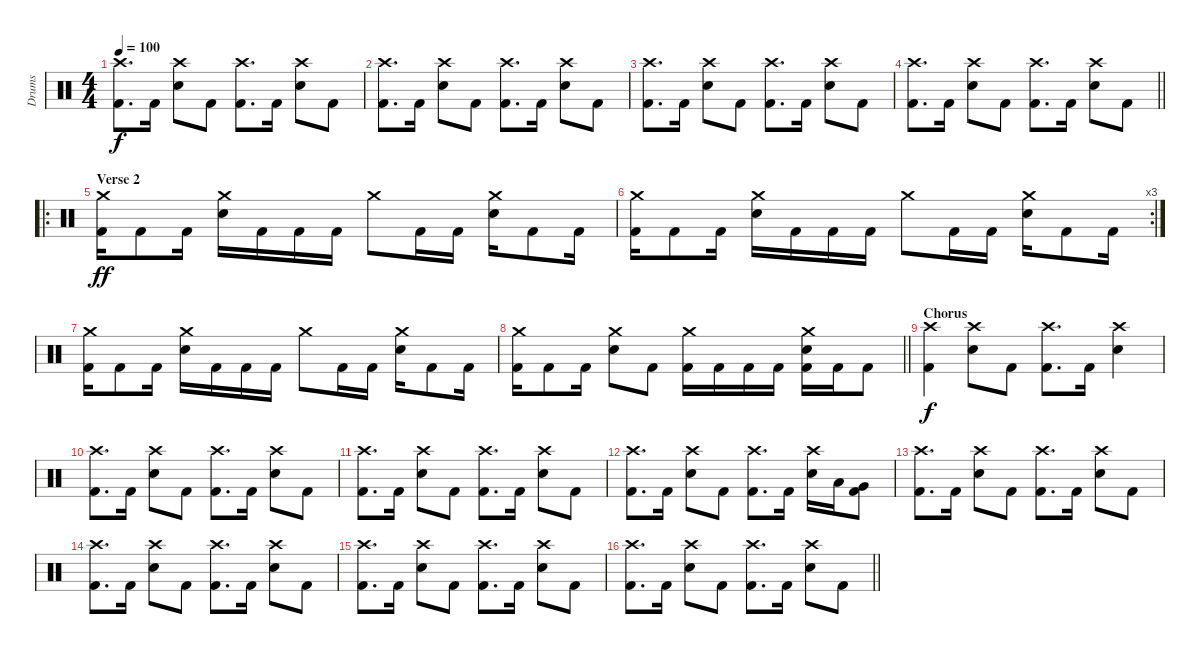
\track ("Drums" "Drums") {instrument percussion}
\staff {score}
\articulation defaults
\ts (4 4)
\tempo 100
\clef neutral
\ks c
("Crash high (hit)" "Kick (hit) 2").8{d dy f} "Kick (hit) 2".16 ("Crash high (hit)" "Snare (hit) 2").8 "Kick (hit) 2".8 ("Crash high (hit)" "Kick (hit) 2").8{d} "Kick (hit) 2".16 ("Crash high (hit)" "Snare (hit) 2").8 "Kick (hit) 2".8 |
("Crash high (hit)" "Kick (hit) 2").8{d} "Kick (hit) 2".16 ("Crash high (hit)" "Snare (hit) 2").8 "Kick (hit) 2".8 ("Crash high (hit)" "Kick (hit) 2").8{d} "Kick (hit) 2".16 ("Crash high (hit)" "Snare (hit) 2").8 "Kick (hit) 2".8 |
("Crash high (hit)" "Kick (hit) 2").8{d} "Kick (hit) 2".16 ("Crash high (hit)" "Snare (hit) 2").8 "Kick (hit) 2".8 ("Crash high (hit)" "Kick (hit) 2").8{d} "Kick (hit) 2".16 ("Crash high (hit)" "Snare (hit) 2").8 "Kick (hit) 2".8 |
\barLineRight lightlight
("Crash high (hit)" "Kick (hit) 2").8{d} "Kick (hit) 2".16 ("Crash high (hit)" "Snare (hit) 2").8 "Kick (hit) 2".8 ("Crash high (hit)" "Kick (hit) 2").8{d} "Kick (hit) 2".16 ("Crash high (hit)" "Snare (hit) 2").8 "Kick (hit) 2".8 |
\ro
\section ("" "Verse 2")
("Crash medium (hit)" "Kick (hit) 2").16{dy ff} "Kick (hit) 2".8 "Kick (hit) 2".16 ("Crash medium (hit)" "Snare (hit) 2").16 "Kick (hit) 2".16 "Kick (hit) 2".16 "Kick (hit) 2".16 "Crash medium (hit)".8 "Kick (hit) 2".16 "Kick (hit) 2".16 ("Crash medium (hit)" "Snare (hit) 2").16 "Kick (hit) 2".8 "Kick (hit) 2".16 |
\rc 3
("Crash medium (hit)" "Kick (hit) 2").16 "Kick (hit) 2".8 "Kick (hit) 2".16 ("Crash medium (hit)" "Snare (hit) 2").16 "Kick (hit) 2".16 "Kick (hit) 2".16 "Kick (hit) 2".16 "Crash medium (hit)".8 "Kick (hit) 2".16 "Kick (hit) 2".16 ("Crash medium (hit)" "Snare (hit) 2").16 "Kick (hit) 2".8 "Kick (hit) 2".16 |
("Crash medium (hit)" "Kick (hit) 2").16 "Kick (hit) 2".8 "Kick (hit) 2".16 ("Crash medium (hit)" "Snare (hit) 2").16 "Kick (hit) 2".16 "Kick (hit) 2".16 "Kick (hit) 2".16 "Crash medium (hit)".8 "Kick (hit) 2".16 "Kick (hit) 2".16 ("Crash medium (hit)" "Snare (hit) 2").16 "Kick (hit) 2".8 "Kick (hit) 2".16 |
\barLineRight lightlight
("Crash medium (hit)" "Kick (hit) 2").16 "Kick (hit) 2".8 "Kick (hit) 2".16 ("Crash medium (hit)" "Snare (hit) 2").8 "Kick (hit) 2".8 ("Crash medium (hit)" "Kick (hit) 2").16 "Kick (hit) 2".16 "Kick (hit) 2".16 "Kick (hit) 2".16 ("Crash medium (hit)" "Kick (hit) 2" "Snare (hit) 2").16 "Kick (hit) 2".16 "Kick (hit) 2".8 |
\section ("" "Chorus")
("Crash high (hit)" "Kick (hit) 2").4{dy f} ("Crash high (hit)" "Snare (hit) 2").8 "Kick (hit) 2".8 ("Crash high (hit)" "Kick (hit) 2").8{d} "Kick (hit) 2".16 ("Crash high (hit)" "Snare (hit) 2").4 |
("Crash high (hit)" "Kick (hit) 2").8{d} "Kick (hit) 2".16 ("Crash high (hit)" "Snare (hit) 2").8 "Kick (hit) 2".8 ("Crash high (hit)" "Kick (hit) 2").8{d} "Kick (hit) 2".16 ("Crash high (hit)" "Snare (hit) 2").8 "Kick (hit) 2".8 |
("Crash high (hit)" "Kick (hit) 2").8{d} "Kick (hit) 2".16 ("Crash high (hit)" "Snare (hit) 2").8 "Kick (hit) 2".8 ("Crash high (hit)" "Kick (hit) 2").8{d} "Kick (hit) 2".16 ("Crash high (hit)" "Snare (hit) 2").8 "Kick (hit) 2".8 |
("Crash high (hit)" "Kick (hit) 2").8{d} "Kick (hit) 2".16 ("Crash high (hit)" "Snare (hit) 2").8 "Kick (hit) 2".8 ("Crash high (hit)" "Kick (hit) 2").8{d} "Kick (hit) 2".16 ("Crash high (hit)" "Snare (hit) 2").16 "Low Tom (hit)".16 ("Very Low Tom (hit)" "Kick (hit) 2").8 |
("Crash high (hit)" "Kick (hit) 2").8{d} "Kick (hit) 2".16 ("Crash high (hit)" "Snare (hit) 2").8 "Kick (hit) 2".8 ("Crash high (hit)" "Kick (hit) 2").8{d} "Kick (hit) 2".16 ("Crash high (hit)" "Snare (hit) 2").8 "Kick (hit) 2".8 |
("Crash high (hit)" "Kick (hit) 2").8{d} "Kick (hit) 2".16 ("Crash high (hit)" "Snare (hit) 2").8 "Kick (hit) 2".8 ("Crash high (hit)" "Kick (hit) 2").8{d} "Kick (hit) 2".16 ("Crash high (hit)" "Snare (hit) 2").8 "Kick (hit) 2".8 |
("Crash high (hit)" "Kick (hit) 2").8{d} "Kick (hit) 2".16 ("Crash high (hit)" "Snare (hit) 2").8 "Kick (hit) 2".8 ("Crash high (hit)" "Kick (hit) 2").8{d} "Kick (hit) 2".16 ("Crash high (hit)" "Snare (hit) 2").8 "Kick (hit) 2".8 |
\barLineRight lightlight
("Crash high (hit)" "Kick (hit) 2").8{d} "Kick (hit) 2".16 ("Crash high (hit)" "Snare (hit) 2").8 "Kick (hit) 2".8 ("Crash high (hit)" "Kick (hit) 2").8{d} "Kick (hit) 2".16 ("Crash high (hit)" "Snare (hit) 2").8 "Kick (hit) 2".8
